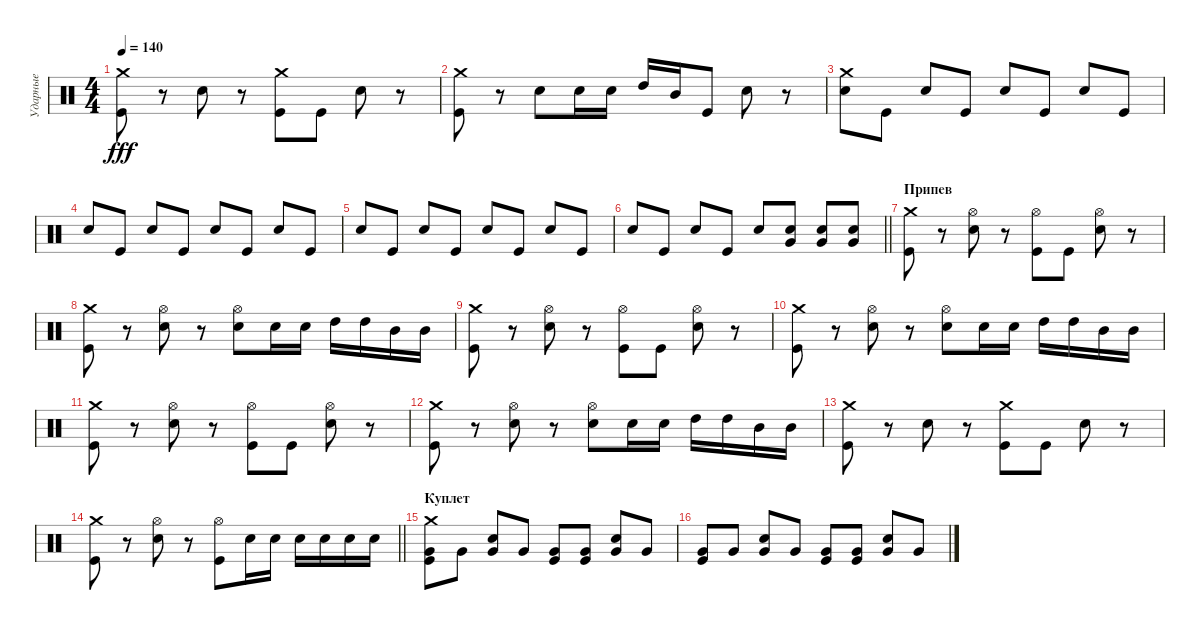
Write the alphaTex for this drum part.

\track ("Ударные" "Ударные") {instrument percussion}
\staff {score}
\articulation defaults
\ts (4 4)
\tempo 140
\clef neutral
\ks c
("Crash medium (hit)" "Kick (hit)").8{dy fff} r.8 "Electric Snare (hit)".8 r.8 ("Crash medium (hit)" "Kick (hit)").8 "Kick (hit)".8 "Electric Snare (hit)".8 r.8 |
("Crash medium (hit)" "Kick (hit)").8 r.8 "Electric Snare (hit)".8 "Electric Snare (hit)".16 "Electric Snare (hit)".16 "High Tom (hit)".16 "Mid Tom (hit)".16 "Kick (hit)".8 "Electric Snare (hit)".8 r.8 |
("Crash medium (hit)" "Electric Snare (hit)").8 "Kick (hit)".8 "Electric Snare (hit)".8 "Kick (hit)".8 "Electric Snare (hit)".8 "Kick (hit)".8 "Electric Snare (hit)".8 "Kick (hit)".8 |
"Electric Snare (hit)".8 "Kick (hit)".8 "Electric Snare (hit)".8 "Kick (hit)".8 "Electric Snare (hit)".8 "Kick (hit)".8 "Electric Snare (hit)".8 "Kick (hit)".8 |
"Electric Snare (hit)".8 "Kick (hit)".8 "Electric Snare (hit)".8 "Kick (hit)".8 "Electric Snare (hit)".8 "Kick (hit)".8 "Electric Snare (hit)".8 "Kick (hit)".8 |
\barLineRight lightlight "Electric Snare (hit)".8 "Kick (hit)".8 "Electric Snare (hit)".8 "Kick (hit)".8 "Electric Snare (hit)".8
("Electric Snare (hit)" "Very Low Tom (hit)").8 ("Electric Snare (hit)" "Very Low Tom (hit)").8 ("Electric Snare (hit)" "Very Low Tom (hit)").8 |
\section ("" "Припев")
("Crash medium (hit)" "Kick (hit)").8 r.8 ("Hi-Hat (open)" "Electric Snare (hit)").8 r.8 ("Hi-Hat (open)" "Kick (hit)").8 "Kick (hit)".8 ("Hi-Hat (open)" "Electric Snare (hit)").8 r.8 |
("Crash medium (hit)" "Kick (hit)").8 r.8 ("Hi-Hat (open)" "Electric Snare (hit)").8 r.8 ("Hi-Hat (open)" "Electric Snare (hit)").8 "Electric Snare (hit)".16 "Electric Snare (hit)".16 "High Tom (hit)".16 "High Tom (hit)".16 "Mid Tom (hit)".16 "Mid Tom (hit)".16 |
("Crash medium (hit)" "Kick (hit)").8 r.8 ("Hi-Hat (open)" "Electric Snare (hit)").8 r.8 ("Hi-Hat (open)" "Kick (hit)").8 "Kick (hit)".8 ("Hi-Hat (open)" "Electric Snare (hit)").8 r.8 |
("Crash medium (hit)" "Kick (hit)").8 r.8 ("Hi-Hat (open)" "Electric Snare (hit)").8 r.8 ("Hi-Hat (open)" "Electric Snare (hit)").8 "Electric Snare (hit)".16 "Electric Snare (hit)".16 "High Tom (hit)".16 "High Tom (hit)".16 "Mid Tom (hit)".16 "Mid Tom (hit)".16 |
("Crash medium (hit)" "Kick (hit)").8 r.8 ("Hi-Hat (open)" "Electric Snare (hit)").8 r.8 ("Hi-Hat (open)" "Kick (hit)").8 "Kick (hit)".8 ("Hi-Hat (open)" "Electric Snare (hit)").8 r.8 |
("Crash medium (hit)" "Kick (hit)").8 r.8 ("Hi-Hat (open)" "Electric Snare (hit)").8 r.8 ("Hi-Hat (open)" "Electric Snare (hit)").8 "Electric Snare (hit)".16 "Electric Snare (hit)".16 "High Tom (hit)".16 "High Tom (hit)".16 "Mid Tom (hit)".16 "Mid Tom (hit)".16 |
("Crash medium (hit)" "Kick (hit)").8 r.8 "Electric Snare (hit)".8 r.8 ("Crash medium (hit)" "Kick (hit)").8 "Kick (hit)".8 "Electric Snare (hit)".8 r.8 |
\barLineRight lightlight
("Crash medium (hit)" "Kick (hit)").8 r.8 ("Hi-Hat (open)" "Electric Snare (hit)").8 r.8 ("Hi-Hat (open)" "Kick (hit)").8 "Electric Snare (hit)".16 "Electric Snare (hit)".16 "Electric Snare (hit)".16 "Electric Snare (hit)".16 "Electric Snare (hit)".16 "Electric Snare (hit)".16 |
\section ("" "Куплет")
("Crash medium (hit)" "Kick (hit)" "Very Low Tom (hit)").8 "Very Low Tom (hit)".8 ("Electric Snare (hit)" "Very Low Tom (hit)").8 "Very Low Tom (hit)".8 ("Kick (hit)" "Very Low Tom (hit)").8 ("Kick (hit)" "Very Low Tom (hit)").8 ("Electric Snare (hit)" "Very Low Tom (hit)").8 "Very Low Tom (hit)".8 |
("Kick (hit)" "Very Low Tom (hit)").8 "Very Low Tom (hit)".8 ("Electric Snare (hit)" "Very Low Tom (hit)").8 "Very Low Tom (hit)".8 ("Kick (hit)" "Very Low Tom (hit)").8 ("Kick (hit)" "Very Low Tom (hit)").8 ("Electric Snare (hit)" "Very Low Tom (hit)").8 "Very Low Tom (hit)".8
